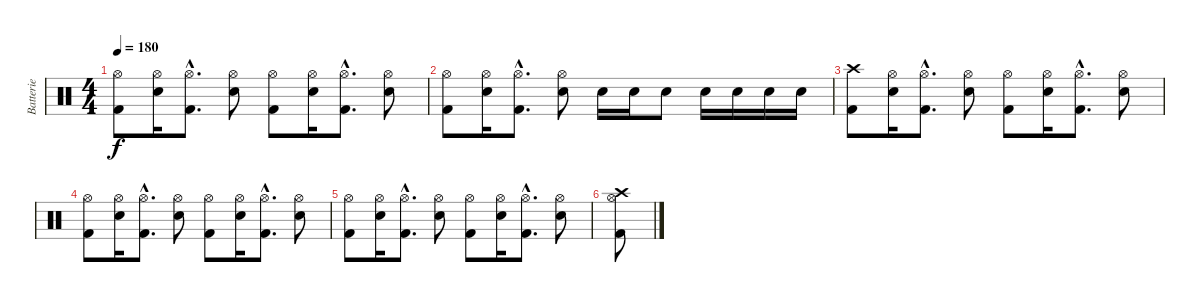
\track ("Batterie" "Batterie") {instrument percussion}
\staff {score}
\articulation defaults
\ts (4 4)
\tempo 180
\clef neutral
\ks c
("Hi-Hat (open)" "Kick (hit) 2").8{dy f} ("Hi-Hat (open)" "Electric Snare (hit)").16 ("Hi-Hat (open)"{hac} "Kick (hit) 2"{hac}).8{d} ("Hi-Hat (open)" "Electric Snare (hit)").8 ("Hi-Hat (open)" "Kick (hit) 2").8 ("Hi-Hat (open)" "Electric Snare (hit)").16 ("Hi-Hat (open)"{hac} "Kick (hit) 2"{hac}).8{d} ("Hi-Hat (open)" "Electric Snare (hit)").8 |
("Hi-Hat (open)" "Kick (hit) 2").8 ("Hi-Hat (open)" "Electric Snare (hit)").16 ("Hi-Hat (open)"{hac} "Kick (hit) 2"{hac}).8{d} ("Hi-Hat (open)" "Electric Snare (hit)").8 "Electric Snare (hit)".16 "Electric Snare (hit)".16 "Electric Snare (hit)".8 "Electric Snare (hit)".16 "Electric Snare (hit)".16 "Electric Snare (hit)".16 "Electric Snare (hit)".16 |
("Crash high (hit)" "Kick (hit) 2").8 ("Hi-Hat (open)" "Electric Snare (hit)").16 ("Hi-Hat (open)"{hac} "Kick (hit) 2"{hac}).8{d} ("Hi-Hat (open)" "Electric Snare (hit)").8 ("Hi-Hat (open)" "Kick (hit) 2").8 ("Hi-Hat (open)" "Electric Snare (hit)").16 ("Hi-Hat (open)"{hac} "Kick (hit) 2"{hac}).8{d} ("Hi-Hat (open)" "Electric Snare (hit)").8 |
("Hi-Hat (open)" "Kick (hit) 2").8 ("Hi-Hat (open)" "Electric Snare (hit)").16 ("Hi-Hat (open)"{hac} "Kick (hit) 2"{hac}).8{d} ("Hi-Hat (open)" "Electric Snare (hit)").8 ("Hi-Hat (open)" "Kick (hit) 2").8 ("Hi-Hat (open)" "Electric Snare (hit)").16 ("Hi-Hat (open)"{hac} "Kick (hit) 2"{hac}).8{d} ("Hi-Hat (open)" "Electric Snare (hit)").8 |
("Hi-Hat (open)" "Kick (hit) 2").8 ("Hi-Hat (open)" "Electric Snare (hit)").16 ("Hi-Hat (open)"{hac} "Kick (hit) 2"{hac}).8{d} ("Hi-Hat (open)" "Electric Snare (hit)").8 ("Hi-Hat (open)" "Kick (hit) 2").8 ("Hi-Hat (open)" "Electric Snare (hit)").16 ("Hi-Hat (open)"{hac} "Kick (hit) 2"{hac}).8{d} ("Hi-Hat (open)" "Electric Snare (hit)").8 |
("Crash high (hit)" "Hi-Hat (open)" "Kick (hit) 2").8
